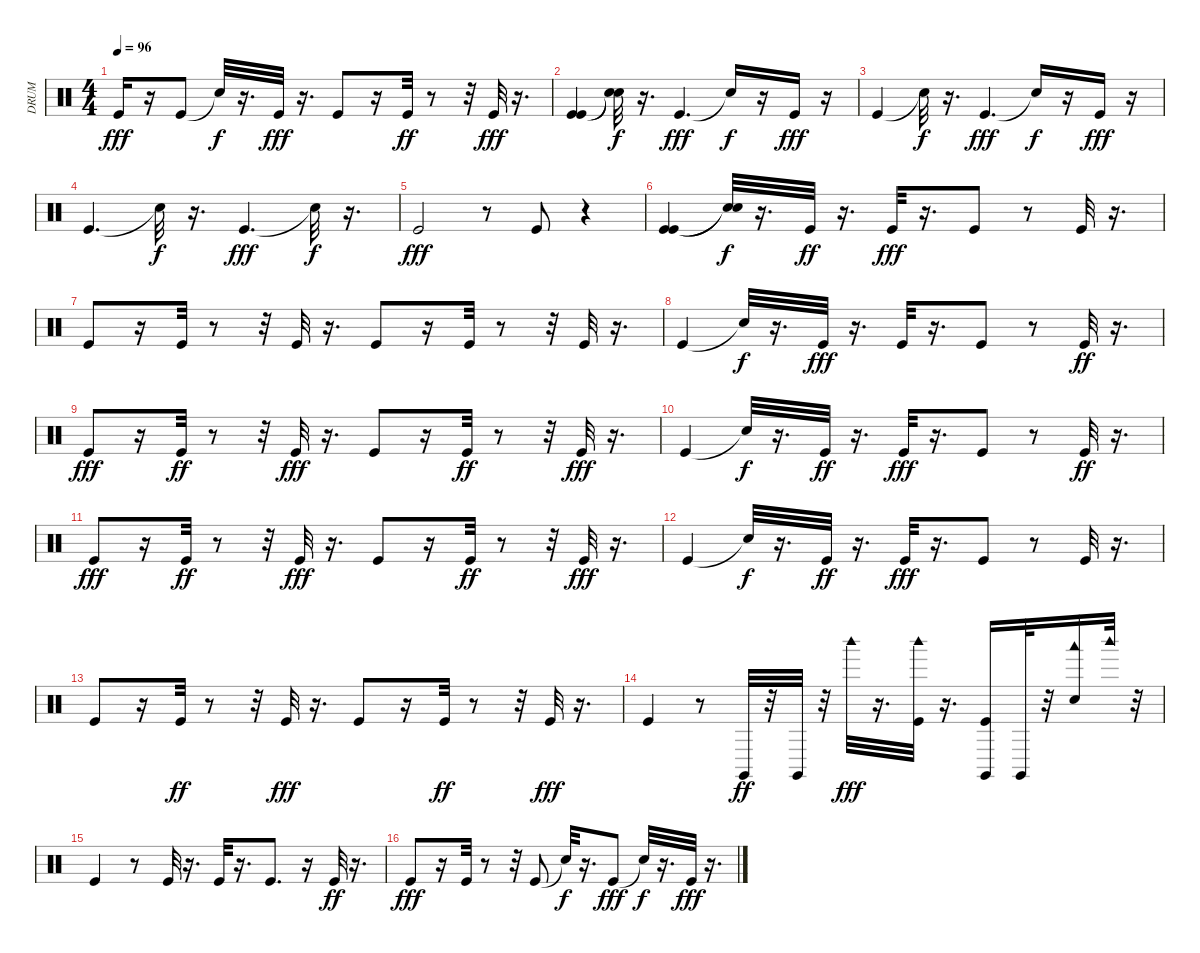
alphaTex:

\track ("DRUM" "DRUM") {instrument percussion}
\staff {score}
\articulation defaults
\ts (4 4)
\tempo 96
\clef neutral
\ks c "Kick (hit)".16{dy fff}
r.16 "Kick (hit)".8 "Snare (hit)"{t}.32{dy f} r.16{d} "Kick (hit)".32{dy fff} r.16{d} "Kick (hit)".8 r.16 "Kick (hit)".32{dy ff} r.8 r.32 "Kick (hit)".32{dy fff} r.16{d} |
("Kick (hit)" "Kick (hit)").4 ("Snare (hit)"{t} "Snare (hit)"{t}).32{dy f} r.16{d} "Kick (hit)".4{d dy fff} "Snare (hit)"{t}.16{dy f} r.16 "Kick (hit)".16{dy fff} r.16 |
"Kick (hit)".4 "Snare (hit)"{t}.32{dy f} r.16{d} "Kick (hit)".4{d dy fff} "Snare (hit)"{t}.16{dy f} r.16 "Kick (hit)".16{dy fff} r.16 |
"Kick (hit)".4{d} "Snare (hit)"{t}.32{dy f} r.16{d} "Kick (hit)".4{d dy fff} "Snare (hit)"{t}.32{dy f} r.16{d} |
"Kick (hit)".2{dy fff} r.8 "Kick (hit)".8 r.4 |
("Kick (hit)" "Kick (hit)").4 ("Snare (hit)"{t} "Snare (hit)"{t}).32{dy f} r.16{d} "Kick (hit)".32{dy ff} r.16{d} "Kick (hit)".32{dy fff} r.16{d} "Kick (hit)".8 r.8 "Kick (hit)".32 r.16{d} |
"Kick (hit)".8 r.16 "Kick (hit)".32 r.8 r.32 "Kick (hit)".32 r.16{d} "Kick (hit)".8 r.16 "Kick (hit)".32 r.8 r.32 "Kick (hit)".32 r.16{d} |
"Kick (hit)".4 "Snare (hit)"{t}.32{dy f} r.16{d} "Kick (hit)".32{dy fff} r.16{d} "Kick (hit)".32 r.16{d} "Kick (hit)".8 r.8 "Kick (hit)".32{dy ff} r.16{d} |
"Kick (hit)".8{dy fff} r.16 "Kick (hit)".32{dy ff} r.8 r.32 "Kick (hit)".32{dy fff} r.16{d} "Kick (hit)".8 r.16 "Kick (hit)".32{dy ff} r.8 r.32 "Kick (hit)".32{dy fff} r.16{d} |
"Kick (hit)".4 "Snare (hit)"{t}.32{dy f} r.16{d} "Kick (hit)".32{dy ff} r.16{d} "Kick (hit)".32{dy fff} r.16{d} "Kick (hit)".8 r.8 "Kick (hit)".32{dy ff} r.16{d} |
"Kick (hit)".8{dy fff} r.16 "Kick (hit)".32{dy ff} r.8 r.32 "Kick (hit)".32{dy fff} r.16{d} "Kick (hit)".8 r.16 "Kick (hit)".32{dy ff} r.8 r.32 "Kick (hit)".32{dy fff} r.16{d} |
"Kick (hit)".4 "Snare (hit)"{t}.32{dy f} r.16{d} "Kick (hit)".32{dy ff} r.16{d} "Kick (hit)".32{dy fff} r.16{d} "Kick (hit)".8 r.8 "Kick (hit)".32 r.16{d} |
"Kick (hit)".8 r.16 "Kick (hit)".32{dy ff} r.8 r.32 "Kick (hit)".32{dy fff} r.16{d} "Kick (hit)".8 r.16 "Kick (hit)".32{dy ff} r.8 r.32 "Kick (hit)".32{dy fff} r.16{d} |
"Kick (hit)".4 r.8 "Claves (hit)".32{dy ff} r.32 "Claves (hit)".32 r.32 "Woodblock high (hit)".32{dy fff} r.16{d} ("Woodblock high (hit)" "Kick (hit)").32 r.16{d} ("Claves (hit)" "Kick (hit)").16 "Claves (hit)".32 r.32 ("Woodblock low (hit)" "Snare (hit) 2").16 "Woodblock high (hit)".32 r.32 |
"Kick (hit)".4 r.8 "Kick (hit)".32 r.16{d} "Kick (hit)".32 r.16{d} "Kick (hit)".8{d} r.16 "Kick (hit)".32{dy ff} r.16{d} |
"Kick (hit)".8{dy fff} r.16 "Kick (hit)".32 r.8 r.32 "Kick (hit)".8 "Snare (hit)"{t}.32{dy f} r.16{d} "Kick (hit)".8{dy fff} "Snare (hit)"{t}.32{dy f} r.16{d} "Kick (hit)".32{dy fff} r.16{d}
